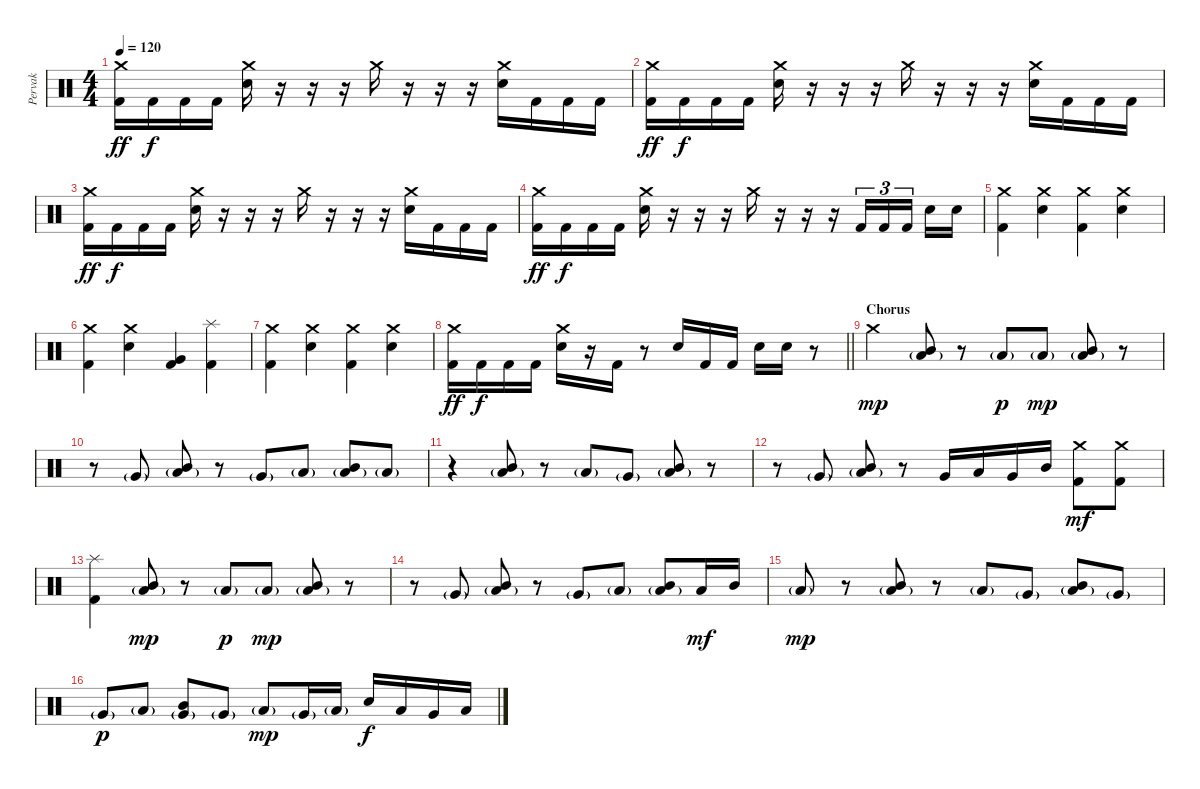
\track ("Pervak" "Pervak") {instrument percussion}
\staff {score}
\articulation defaults
\ts (4 4)
\tempo 120
\clef neutral
\ks c
("Crash medium (hit)" "Kick (hit) 2").16{dy ff} "Kick (hit) 2".16{dy f} "Kick (hit) 2".16 "Kick (hit) 2".16 ("Crash medium (hit)" "Electric Snare (hit)").16 r.16 r.16 r.16 "Crash medium (hit)".16 r.16 r.16 r.16 ("Crash medium (hit)" "Electric Snare (hit)").16 "Kick (hit) 2".16 "Kick (hit) 2".16 "Kick (hit) 2".16 |
("Crash medium (hit)" "Kick (hit) 2").16{dy ff} "Kick (hit) 2".16{dy f} "Kick (hit) 2".16 "Kick (hit) 2".16 ("Crash medium (hit)" "Electric Snare (hit)").16 r.16 r.16 r.16 "Crash medium (hit)".16 r.16 r.16 r.16 ("Crash medium (hit)" "Electric Snare (hit)").16 "Kick (hit) 2".16 "Kick (hit) 2".16 "Kick (hit) 2".16 |
("Crash medium (hit)" "Kick (hit) 2").16{dy ff} "Kick (hit) 2".16{dy f} "Kick (hit) 2".16 "Kick (hit) 2".16 ("Crash medium (hit)" "Electric Snare (hit)").16 r.16 r.16 r.16 "Crash medium (hit)".16 r.16 r.16 r.16 ("Crash medium (hit)" "Electric Snare (hit)").16 "Kick (hit) 2".16 "Kick (hit) 2".16 "Kick (hit) 2".16 |
("Crash medium (hit)" "Kick (hit) 2").16{dy ff} "Kick (hit) 2".16{dy f} "Kick (hit) 2".16 "Kick (hit) 2".16 ("Crash medium (hit)" "Electric Snare (hit)").16 r.16 r.16 r.16 "Crash medium (hit)".16 r.16 r.16 r.16 "Kick (hit) 2".16{tu (3 2)} "Kick (hit) 2".16{tu (3 2)} "Kick (hit) 2".16{tu (3 2) beam splitsecondary} "Electric Snare (hit)".16 "Electric Snare (hit)".16 |
("Crash medium (hit)" "Kick (hit) 2").4 ("Crash medium (hit)" "Electric Snare (hit)").4 ("Crash medium (hit)" "Kick (hit) 2").4 ("Crash medium (hit)" "Electric Snare (hit)").4 |
("Crash medium (hit)" "Kick (hit) 2").4 ("Crash medium (hit)" "Electric Snare (hit)").4 ("Very Low Tom (hit)" "Kick (hit) 2").4 ("Splash (hit)" "Kick (hit) 2").4 |
("Crash medium (hit)" "Kick (hit) 2").4 ("Crash medium (hit)" "Electric Snare (hit)").4 ("Crash medium (hit)" "Kick (hit) 2").4 ("Crash medium (hit)" "Electric Snare (hit)").4 |
\barLineRight lightlight
("Crash medium (hit)" "Kick (hit) 2").16{dy ff} "Kick (hit) 2".16{dy f} "Kick (hit) 2".16 "Kick (hit) 2".16 ("Crash medium (hit)" "Electric Snare (hit)").16 r.16 "Kick (hit) 2".16 r.8 "Electric Snare (hit)".16 "Kick (hit) 2".16 "Kick (hit) 2".16 "Electric Snare (hit)".16 "Electric Snare (hit)".16 r.8 |
\section ("" "Chorus")
"Crash medium (hit)".4{dy mp volume 12} ("Mid Tom (hit)" "Low Tom (hit)"{g}).8 r.8 "Low Tom (hit)"{g}.8{dy p} "Low Tom (hit)"{g}.8{dy mp} ("Mid Tom (hit)" "Low Tom (hit)"{g}).8 r.8 |
r.8 "Very Low Tom (hit)"{g}.8 ("Mid Tom (hit)" "Low Tom (hit)"{g}).8 r.8 "Very Low Tom (hit)"{g}.8 "Low Tom (hit)"{g}.8 ("Mid Tom (hit)" "Low Tom (hit)"{g}).8 "Low Tom (hit)"{g}.8 |
r.4 ("Mid Tom (hit)" "Low Tom (hit)"{g}).8 r.8 "Low Tom (hit)"{g}.8 "Very Low Tom (hit)"{g}.8 ("Mid Tom (hit)" "Low Tom (hit)"{g}).8 r.8 |
r.8 "Very Low Tom (hit)"{g}.8 ("Mid Tom (hit)" "Low Tom (hit)"{g}).8 r.8 "Very Low Tom (hit)".16 "Low Tom (hit)".16 "Very Low Tom (hit)".16 "Mid Tom (hit)".16 ("Crash medium (hit)" "Kick (hit) 2").8{dy mf} ("Crash medium (hit)" "Kick (hit) 2").8 |
("Splash (hit)" "Kick (hit) 2").4 ("Mid Tom (hit)" "Low Tom (hit)"{g}).8{dy mp} r.8 "Low Tom (hit)"{g}.8{dy p} "Low Tom (hit)"{g}.8{dy mp} ("Mid Tom (hit)" "Low Tom (hit)"{g}).8 r.8 |
r.8 "Very Low Tom (hit)"{g}.8 ("Mid Tom (hit)" "Low Tom (hit)"{g}).8 r.8 "Very Low Tom (hit)"{g}.8 "Low Tom (hit)"{g}.8 ("Mid Tom (hit)" "Low Tom (hit)"{g}).8 "Low Tom (hit)".16{dy mf} "Mid Tom (hit)".16 |
"Low Tom (hit)"{g}.8{dy mp} r.8 ("Mid Tom (hit)" "Low Tom (hit)"{g}).8 r.8 "Low Tom (hit)"{g}.8 "Very Low Tom (hit)"{g}.8 ("Mid Tom (hit)" "Low Tom (hit)"{g}).8 "Very Low Tom (hit)"{g}.8 |
"Very Low Tom (hit)"{g}.8{dy p} "Low Tom (hit)"{g}.8 ("Mid Tom (hit)" "Very Low Tom (hit)"{g}).8 "Very Low Tom (hit)"{g}.8 "Low Tom (hit)"{g}.8{dy mp} "Very Low Tom (hit)"{g}.16 "Low Tom (hit)"{g}.16 "Electric Snare (hit)".16{dy f} "Low Tom (hit)".16 "Very Low Tom (hit)".16 "Low Tom (hit)".16
